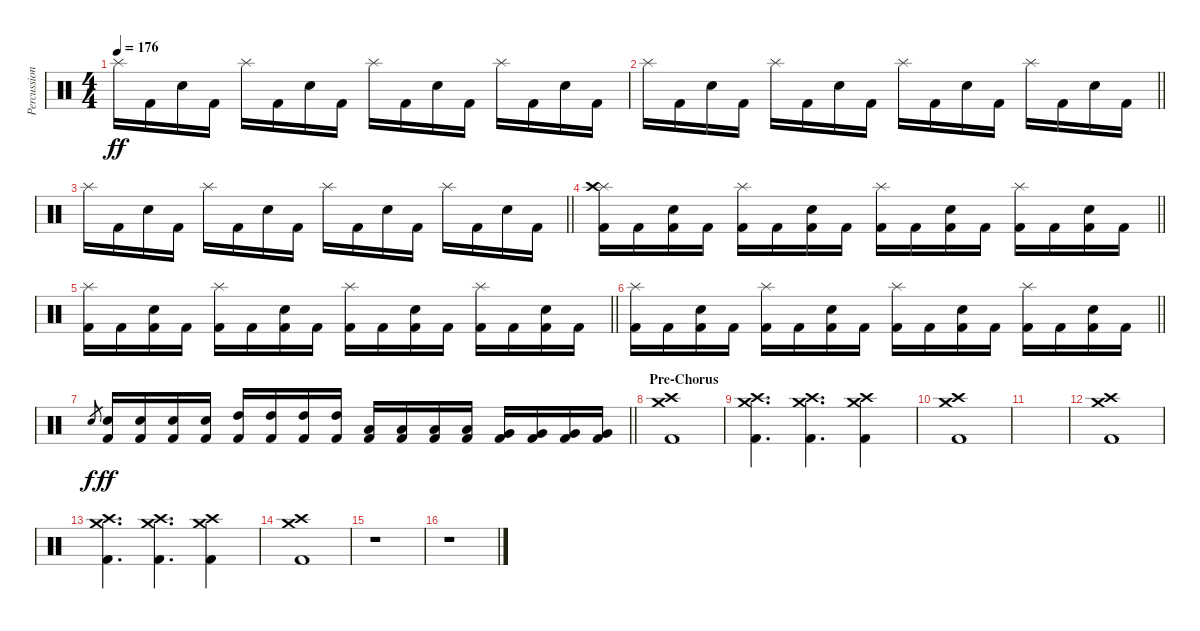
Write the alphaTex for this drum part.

\track ("Percussion" "Percussion") {instrument percussion}
\staff {score}
\articulation defaults
\ts (4 4)
\tempo 176
\clef neutral
\ks c "Splash (hit)".16{dy ff} "Kick (hit) 2".16 "Electric Snare (hit)".16 "Kick (hit) 2".16 "Splash (hit)".16 "Kick (hit) 2".16 "Electric Snare (hit)".16 "Kick (hit) 2".16 "Splash (hit)".16 "Kick (hit) 2".16 "Electric Snare (hit)".16 "Kick (hit) 2".16 "Splash (hit)".16 "Kick (hit) 2".16 "Electric Snare (hit)".16 "Kick (hit) 2".16
|
\barLineRight lightlight "Splash (hit)".16 "Kick (hit) 2".16 "Electric Snare (hit)".16 "Kick (hit) 2".16 "Splash (hit)".16 "Kick (hit) 2".16 "Electric Snare (hit)".16 "Kick (hit) 2".16 "Splash (hit)".16 "Kick (hit) 2".16 "Electric Snare (hit)".16 "Kick (hit) 2".16 "Splash (hit)".16 "Kick (hit) 2".16 "Electric Snare (hit)".16 "Kick (hit) 2".16
|
\barLineRight lightlight "Splash (hit)".16 "Kick (hit) 2".16 "Electric Snare (hit)".16 "Kick (hit) 2".16 "Splash (hit)".16 "Kick (hit) 2".16 "Electric Snare (hit)".16 "Kick (hit) 2".16 "Splash (hit)".16 "Kick (hit) 2".16 "Electric Snare (hit)".16 "Kick (hit) 2".16 "Splash (hit)".16 "Kick (hit) 2".16 "Electric Snare (hit)".16 "Kick (hit) 2".16
|
\barLineRight lightlight
("Kick (hit) 2" "Splash (hit)" "Crash high (hit)").16 "Kick (hit) 2".16 ("Kick (hit) 2" "Electric Snare (hit)").16 "Kick (hit) 2".16 ("Kick (hit) 2" "Splash (hit)").16 "Kick (hit) 2".16 ("Kick (hit) 2" "Electric Snare (hit)").16 "Kick (hit) 2".16 ("Kick (hit) 2" "Splash (hit)").16 "Kick (hit) 2".16 ("Kick (hit) 2" "Electric Snare (hit)").16 "Kick (hit) 2".16 ("Kick (hit) 2" "Splash (hit)").16 "Kick (hit) 2".16 ("Kick (hit) 2" "Electric Snare (hit)").16 "Kick (hit) 2".16 |
\barLineRight lightlight
("Kick (hit) 2" "Splash (hit)").16 "Kick (hit) 2".16 ("Kick (hit) 2" "Electric Snare (hit)").16 "Kick (hit) 2".16 ("Kick (hit) 2" "Splash (hit)").16 "Kick (hit) 2".16 ("Kick (hit) 2" "Electric Snare (hit)").16 "Kick (hit) 2".16 ("Kick (hit) 2" "Splash (hit)").16 "Kick (hit) 2".16 ("Kick (hit) 2" "Electric Snare (hit)").16 "Kick (hit) 2".16 ("Kick (hit) 2" "Splash (hit)").16 "Kick (hit) 2".16 ("Kick (hit) 2" "Electric Snare (hit)").16 "Kick (hit) 2".16 |
\barLineRight lightlight
("Kick (hit) 2" "Splash (hit)").16 "Kick (hit) 2".16 ("Kick (hit) 2" "Electric Snare (hit)").16 "Kick (hit) 2".16 ("Kick (hit) 2" "Splash (hit)").16 "Kick (hit) 2".16 ("Kick (hit) 2" "Electric Snare (hit)").16 "Kick (hit) 2".16 ("Kick (hit) 2" "Splash (hit)").16 "Kick (hit) 2".16 ("Kick (hit) 2" "Electric Snare (hit)").16 "Kick (hit) 2".16 ("Kick (hit) 2" "Splash (hit)").16 "Kick (hit) 2".16 ("Kick (hit) 2" "Electric Snare (hit)").16 "Kick (hit) 2".16 |
\barLineRight lightlight "Electric Snare (hit)".8{gr dy f}
("Kick (hit) 2" "Electric Snare (hit)").16{dy ff} ("Kick (hit) 2" "Electric Snare (hit)").16 ("Kick (hit) 2" "Electric Snare (hit)").16 ("Kick (hit) 2" "Electric Snare (hit)").16 ("Kick (hit) 2" "High Tom (hit)").16 ("Kick (hit) 2" "High Tom (hit)").16 ("Kick (hit) 2" "High Tom (hit)").16 ("Kick (hit) 2" "High Tom (hit)").16 ("Kick (hit) 2" "Low Tom (hit)").16 ("Kick (hit) 2" "Low Tom (hit)").16 ("Kick (hit) 2" "Low Tom (hit)").16 ("Kick (hit) 2" "Low Tom (hit)").16 ("Kick (hit) 2" "Very Low Tom (hit)").16 ("Kick (hit) 2" "Very Low Tom (hit)").16 ("Kick (hit) 2" "Very Low Tom (hit)").16 ("Kick (hit) 2" "Very Low Tom (hit)").16 |
\section ("" "Pre-Chorus")
("Kick (hit) 2" "Crash high (hit)" "Crash medium (hit)").1 |
("Kick (hit) 2" "Crash high (hit)" "Crash medium (hit)").4{d} ("Kick (hit) 2" "Crash high (hit)" "Crash medium (hit)").4{d} ("Kick (hit) 2" "Crash high (hit)" "Crash medium (hit)").4 |
("Kick (hit) 2" "Crash high (hit)" "Crash medium (hit)").1 |
|
("Kick (hit) 2" "Crash high (hit)" "Crash medium (hit)").1 |
("Kick (hit) 2" "Crash high (hit)" "Crash medium (hit)").4{d} ("Kick (hit) 2" "Crash high (hit)" "Crash medium (hit)").4{d} ("Kick (hit) 2" "Crash high (hit)" "Crash medium (hit)").4 |
("Kick (hit) 2" "Crash high (hit)" "Crash medium (hit)").1 |
r.1 |
r.1
